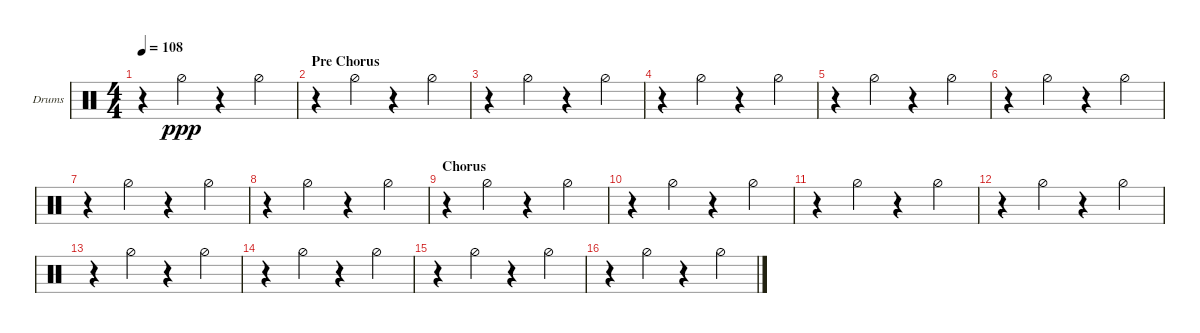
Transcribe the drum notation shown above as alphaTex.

\defaultSystemsLayout 4
\bracketExtendMode groupsimilarinstruments
\firstSystemTrackNameOrientation horizontal
\otherSystemsTrackNameOrientation horizontal
\track ("Quiet Drumkit" "Drums") {instrument percussion}
\staff {score}
\articulation defaults
\ts (4 4)
\tempo 108
\clef neutral
\ks c
r.4{dy ppp} "Hi-Hat (half)".4 r.4 "Hi-Hat (half)".4 |
\section ("" "Pre Chorus")
r.4 "Hi-Hat (half)".4 r.4 "Hi-Hat (half)".4 |
r.4 "Hi-Hat (half)".4 r.4 "Hi-Hat (half)".4 |
r.4 "Hi-Hat (half)".4 r.4 "Hi-Hat (half)".4 |
r.4 "Hi-Hat (half)".4 r.4 "Hi-Hat (half)".4 |
r.4 "Hi-Hat (half)".4 r.4 "Hi-Hat (half)".4 |
r.4 "Hi-Hat (half)".4 r.4 "Hi-Hat (half)".4 |
r.4 "Hi-Hat (half)".4 r.4 "Hi-Hat (half)".4 |
\section ("" "Chorus")
r.4 "Hi-Hat (half)".4 r.4 "Hi-Hat (half)".4 |
r.4 "Hi-Hat (half)".4 r.4 "Hi-Hat (half)".4 |
r.4 "Hi-Hat (half)".4 r.4 "Hi-Hat (half)".4 |
r.4 "Hi-Hat (half)".4 r.4 "Hi-Hat (half)".4 |
r.4 "Hi-Hat (half)".4 r.4 "Hi-Hat (half)".4 |
r.4 "Hi-Hat (half)".4 r.4 "Hi-Hat (half)".4 |
r.4 "Hi-Hat (half)".4 r.4 "Hi-Hat (half)".4 |
r.4 "Hi-Hat (half)".4 r.4 "Hi-Hat (half)".4
